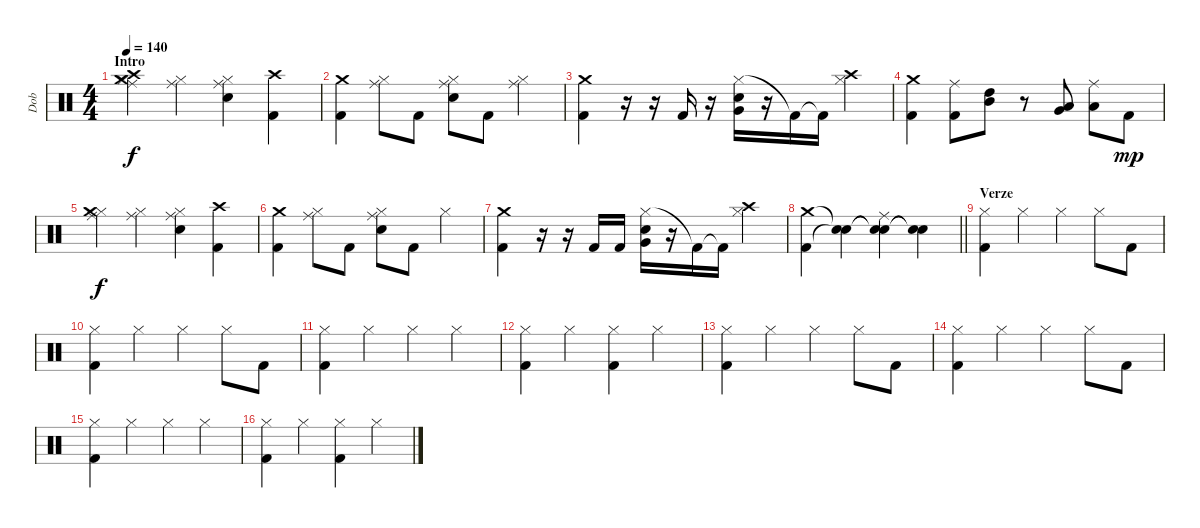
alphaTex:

\track ("Dob" "Dob") {instrument percussion}
\staff {score}
\articulation defaults
\ts (4 4)
\section ("" "Intro")
\tempo 140
\clef neutral
\ks c
("Hi-Hat (closed)" "Crash medium (hit)" "Crash high (hit)" "Ride (middle)").4{dy f} ("Hi-Hat (closed)" "Ride (middle)").4 ("Hi-Hat (closed)" "Electric Snare (hit)" "Ride (middle)").4 ("Crash high (hit)" "Kick (hit) 2").4 |
("Crash medium (hit)" "Kick (hit) 2").4 ("Hi-Hat (closed)" "Ride (middle)").8 "Kick (hit) 2".8 ("Hi-Hat (closed)" "Electric Snare (hit)" "Ride (middle)").8 "Kick (hit) 2".8 ("Hi-Hat (closed)" "Ride (middle)").4 |
("Crash medium (hit)" "Kick (hit) 2").4 r.16 r.16 "Kick (hit) 2".16 r.16 ("Hi-Hat (closed)" "Very Low Tom (hit)" "Electric Snare (hit)").16 r.16 "Kick (hit) 2"{t}.16 "Kick (hit) 2"{t}.16 ("Hi-Hat (closed)" "Crash high (hit)").4 |
("Crash medium (hit)" "Kick (hit) 2").4 ("Kick (hit) 2" "Ride (middle)").8 ("High Tom (hit)" "Mid Tom (hit)").8 r.8 ("Low Tom (hit)" "Very Low Tom (hit)").8 ("Low Floor Tom (hit)" "Ride (middle)").8 "Kick (hit) 2".8{dy mp} |
("Hi-Hat (closed)" "Crash medium (hit)" "Ride (middle)").4{dy f} ("Hi-Hat (closed)" "Ride (middle)").4 ("Hi-Hat (closed)" "Electric Snare (hit)" "Ride (middle)").4 ("Crash high (hit)" "Kick (hit) 2").4 |
("Crash medium (hit)" "Kick (hit) 2").4 ("Hi-Hat (closed)" "Ride (middle)").8 "Kick (hit) 2".8 ("Hi-Hat (closed)" "Electric Snare (hit)" "Ride (middle)").8 "Kick (hit) 2".8 "Hi-Hat (closed)".4 |
("Crash medium (hit)" "Kick (hit) 2").4 r.16 r.16 "Kick (hit) 2".16 "Kick (hit) 2".16 ("Hi-Hat (closed)" "Very Low Tom (hit)" "Electric Snare (hit)").16 r.16 "Kick (hit) 2"{t}.16 "Kick (hit) 2"{t}.16 ("Hi-Hat (closed)" "Crash high (hit)").4 |
\barLineRight lightlight
("Crash medium (hit)" "Kick (hit) 2").4 ("Snare (hit)"{t} "Snare (hit)"{t}).4 ("Snare (hit)"{t} "Snare (hit)"{t} "Ride (middle)").4 ("Snare (hit)"{t} "Snare (hit)"{t}).4 |
\section ("" "Verze")
("Hi-Hat (closed)" "Kick (hit) 2").4 "Hi-Hat (closed)".4 "Hi-Hat (closed)".4 "Hi-Hat (closed)".8 "Kick (hit) 2".8 |
("Hi-Hat (closed)" "Kick (hit) 2").4 "Hi-Hat (closed)".4 "Hi-Hat (closed)".4 "Hi-Hat (closed)".8 "Kick (hit) 2".8 |
("Hi-Hat (closed)" "Kick (hit) 2").4 "Hi-Hat (closed)".4 "Hi-Hat (closed)".4 "Hi-Hat (closed)".4 |
("Hi-Hat (closed)" "Kick (hit) 2").4 "Hi-Hat (closed)".4 ("Hi-Hat (closed)" "Kick (hit) 2").4 "Hi-Hat (closed)".4 |
("Hi-Hat (closed)" "Kick (hit) 2").4 "Hi-Hat (closed)".4 "Hi-Hat (closed)".4 "Hi-Hat (closed)".8 "Kick (hit) 2".8 |
("Hi-Hat (closed)" "Kick (hit) 2").4 "Hi-Hat (closed)".4 "Hi-Hat (closed)".4 "Hi-Hat (closed)".8 "Kick (hit) 2".8 |
("Hi-Hat (closed)" "Kick (hit) 2").4 "Hi-Hat (closed)".4 "Hi-Hat (closed)".4 "Hi-Hat (closed)".4 |
("Hi-Hat (closed)" "Kick (hit) 2").4 "Hi-Hat (closed)".4 ("Hi-Hat (closed)" "Kick (hit) 2").4 "Hi-Hat (closed)".4
